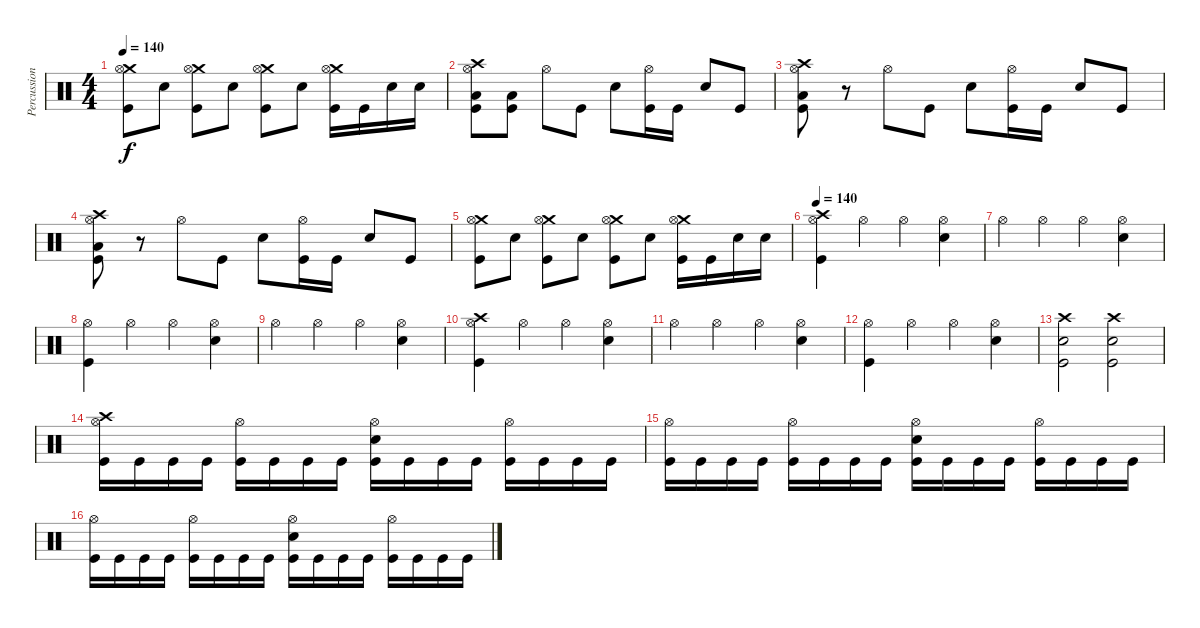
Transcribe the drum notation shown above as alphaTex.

\track ("Percussion" "Percussion") {instrument percussion}
\staff {score}
\articulation defaults
\ts (4 4)
\tempo 140
\clef neutral
\ks c
("Crash medium (hit)" "Hi-Hat (open)" "Kick (hit)").8{dy f} "Electric Snare (hit)".8 ("Crash medium (hit)" "Hi-Hat (open)" "Kick (hit)").8 "Electric Snare (hit)".8 ("Crash medium (hit)" "Hi-Hat (open)" "Kick (hit)").8 "Electric Snare (hit)".8 ("Crash medium (hit)" "Hi-Hat (open)" "Kick (hit)").16 "Kick (hit)".16 "Electric Snare (hit)".16 "Electric Snare (hit)".16 |
("Crash high (hit)" "Hi-Hat (open)" "Low Floor Tom (hit)" "Kick (hit)").8 ("Low Floor Tom (hit)" "Kick (hit)").8 "Hi-Hat (open)".8 "Kick (hit)".8 "Electric Snare (hit)".8 ("Hi-Hat (open)" "Kick (hit)").16 "Kick (hit)".16 "Electric Snare (hit)".8 "Kick (hit)".8 |
("Crash high (hit)" "Hi-Hat (open)" "Low Floor Tom (hit)" "Kick (hit)").8 r.8 "Hi-Hat (open)".8 "Kick (hit)".8 "Electric Snare (hit)".8 ("Hi-Hat (open)" "Kick (hit)").16 "Kick (hit)".16 "Electric Snare (hit)".8 "Kick (hit)".8 |
("Crash high (hit)" "Hi-Hat (open)" "Low Floor Tom (hit)" "Kick (hit)").8 r.8 "Hi-Hat (open)".8 "Kick (hit)".8 "Electric Snare (hit)".8 ("Hi-Hat (open)" "Kick (hit)").16 "Kick (hit)".16 "Electric Snare (hit)".8 "Kick (hit)".8 |
("Crash medium (hit)" "Hi-Hat (open)" "Kick (hit)").8 "Electric Snare (hit)".8 ("Crash medium (hit)" "Hi-Hat (open)" "Kick (hit)").8 "Electric Snare (hit)".8 ("Crash medium (hit)" "Hi-Hat (open)" "Kick (hit)").8 "Electric Snare (hit)".8 ("Crash medium (hit)" "Hi-Hat (open)" "Kick (hit)").16 "Kick (hit)".16 "Electric Snare (hit)".16 "Electric Snare (hit)".16 |
\tempo 140
("Kick (hit)" "Hi-Hat (open)" "Crash high (hit)").4 "Hi-Hat (open)".4 "Hi-Hat (open)".4 ("Electric Snare (hit)" "Hi-Hat (open)").4 |
"Hi-Hat (open)".4 "Hi-Hat (open)".4 "Hi-Hat (open)".4 ("Electric Snare (hit)" "Hi-Hat (open)").4 |
("Kick (hit)" "Hi-Hat (open)").4 "Hi-Hat (open)".4 "Hi-Hat (open)".4 ("Electric Snare (hit)" "Hi-Hat (open)").4 |
"Hi-Hat (open)".4 "Hi-Hat (open)".4 "Hi-Hat (open)".4 ("Electric Snare (hit)" "Hi-Hat (open)").4 |
("Kick (hit)" "Hi-Hat (open)" "Crash high (hit)").4 "Hi-Hat (open)".4 "Hi-Hat (open)".4 ("Electric Snare (hit)" "Hi-Hat (open)").4 |
"Hi-Hat (open)".4 "Hi-Hat (open)".4 "Hi-Hat (open)".4 ("Electric Snare (hit)" "Hi-Hat (open)").4 |
("Kick (hit)" "Hi-Hat (open)").4 "Hi-Hat (open)".4 "Hi-Hat (open)".4 ("Electric Snare (hit)" "Hi-Hat (open)").4 |
("Crash high (hit)" "Electric Snare (hit)" "Kick (hit)").2 ("Crash high (hit)" "Electric Snare (hit)" "Kick (hit)").2 |
("Crash high (hit)" "Hi-Hat (open)" "Kick (hit)").16 "Kick (hit)".16 "Kick (hit)".16 "Kick (hit)".16 ("Hi-Hat (open)" "Kick (hit)").16 "Kick (hit)".16 "Kick (hit)".16 "Kick (hit)".16 ("Hi-Hat (open)" "Electric Snare (hit)" "Kick (hit)").16 "Kick (hit)".16 "Kick (hit)".16 "Kick (hit)".16 ("Hi-Hat (open)" "Kick (hit)").16 "Kick (hit)".16 "Kick (hit)".16 "Kick (hit)".16 |
("Hi-Hat (open)" "Kick (hit)").16 "Kick (hit)".16 "Kick (hit)".16 "Kick (hit)".16 ("Hi-Hat (open)" "Kick (hit)").16 "Kick (hit)".16 "Kick (hit)".16 "Kick (hit)".16 ("Hi-Hat (open)" "Electric Snare (hit)" "Kick (hit)").16 "Kick (hit)".16 "Kick (hit)".16 "Kick (hit)".16 ("Hi-Hat (open)" "Kick (hit)").16 "Kick (hit)".16 "Kick (hit)".16 "Kick (hit)".16 |
("Hi-Hat (open)" "Kick (hit)").16 "Kick (hit)".16 "Kick (hit)".16 "Kick (hit)".16 ("Hi-Hat (open)" "Kick (hit)").16 "Kick (hit)".16 "Kick (hit)".16 "Kick (hit)".16 ("Hi-Hat (open)" "Electric Snare (hit)" "Kick (hit)").16 "Kick (hit)".16 "Kick (hit)".16 "Kick (hit)".16 ("Hi-Hat (open)" "Kick (hit)").16 "Kick (hit)".16 "Kick (hit)".16 "Kick (hit)".16
